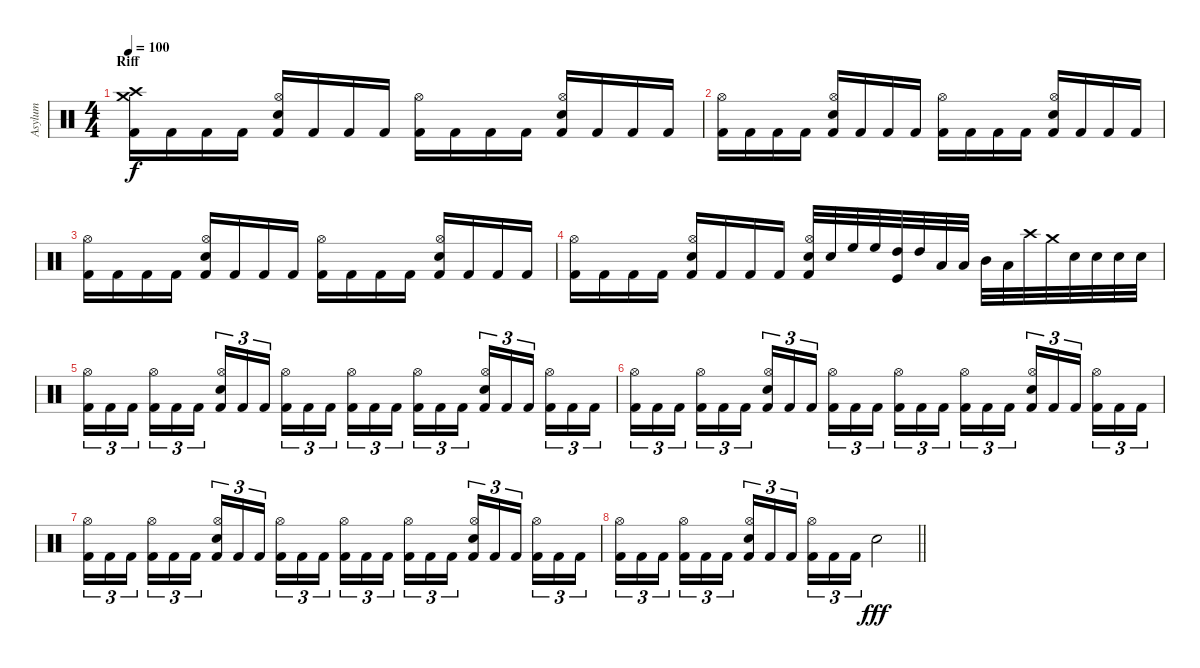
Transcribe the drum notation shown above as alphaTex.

\track ("Asylum" "Asylum") {instrument percussion}
\staff {score}
\articulation defaults
\ts (4 4)
\section ("" "Riff")
\tempo 100
\clef neutral
\ks c
("Crash high (hit)" "Crash medium (hit)" "Kick (hit) 2").16{dy f} "Kick (hit) 2".16 "Kick (hit) 2".16 "Kick (hit) 2".16 ("Hi-Hat (open)" "Electric Snare (hit)" "Kick (hit) 2").16 "Kick (hit) 2".16 "Kick (hit) 2".16 "Kick (hit) 2".16 ("Hi-Hat (open)" "Kick (hit) 2").16 "Kick (hit) 2".16 "Kick (hit) 2".16 "Kick (hit) 2".16 ("Hi-Hat (open)" "Electric Snare (hit)" "Kick (hit) 2").16 "Kick (hit) 2".16 "Kick (hit) 2".16 "Kick (hit) 2".16 |
("Hi-Hat (open)" "Kick (hit) 2").16 "Kick (hit) 2".16 "Kick (hit) 2".16 "Kick (hit) 2".16 ("Hi-Hat (open)" "Electric Snare (hit)" "Kick (hit) 2").16 "Kick (hit) 2".16 "Kick (hit) 2".16 "Kick (hit) 2".16 ("Hi-Hat (open)" "Kick (hit) 2").16 "Kick (hit) 2".16 "Kick (hit) 2".16 "Kick (hit) 2".16 ("Hi-Hat (open)" "Electric Snare (hit)" "Kick (hit) 2").16 "Kick (hit) 2".16 "Kick (hit) 2".16 "Kick (hit) 2".16 |
("Hi-Hat (open)" "Kick (hit) 2").16 "Kick (hit) 2".16 "Kick (hit) 2".16 "Kick (hit) 2".16 ("Hi-Hat (open)" "Electric Snare (hit)" "Kick (hit) 2").16 "Kick (hit) 2".16 "Kick (hit) 2".16 "Kick (hit) 2".16 ("Hi-Hat (open)" "Kick (hit) 2").16 "Kick (hit) 2".16 "Kick (hit) 2".16 "Kick (hit) 2".16 ("Hi-Hat (open)" "Electric Snare (hit)" "Kick (hit) 2").16 "Kick (hit) 2".16 "Kick (hit) 2".16 "Kick (hit) 2".16 |
("Hi-Hat (open)" "Kick (hit) 2").16 "Kick (hit) 2".16 "Kick (hit) 2".16 "Kick (hit) 2".16 ("Hi-Hat (open)" "Electric Snare (hit)" "Kick (hit) 2").16 "Kick (hit) 2".16 "Kick (hit) 2".16 "Kick (hit) 2".16 ("Hi-Hat (open)" "Electric Snare (hit)" "Kick (hit) 2").32 "Electric Snare (hit)".32 "High Floor Tom (hit)".32 "High Floor Tom (hit)".32 ("High Tom (hit)" "Kick (hit)").32 "High Tom (hit)".32 "Low Tom (hit)".32 "Low Tom (hit)".32 "Mid Tom (hit)".32 "Low Tom (hit)".32 "Crash high (hit)".32 "Crash medium (hit)".32 "Electric Snare (hit)".32 "Electric Snare (hit)".32 "Electric Snare (hit)".32 "Electric Snare (hit)".32 |
("Hi-Hat (open)" "Kick (hit) 2").16{tu (3 2)} "Kick (hit) 2".16{tu (3 2)} "Kick (hit) 2".16{tu (3 2)} ("Hi-Hat (open)" "Kick (hit) 2").16{tu (3 2)} "Kick (hit) 2".16{tu (3 2)} "Kick (hit) 2".16{tu (3 2)} ("Hi-Hat (open)" "Electric Snare (hit)" "Kick (hit) 2").16{tu (3 2)} "Kick (hit) 2".16{tu (3 2)} "Kick (hit) 2".16{tu (3 2)} ("Hi-Hat (open)" "Kick (hit) 2").16{tu (3 2)} "Kick (hit) 2".16{tu (3 2)} "Kick (hit) 2".16{tu (3 2)} ("Hi-Hat (open)" "Kick (hit) 2").16{tu (3 2)} "Kick (hit) 2".16{tu (3 2)} "Kick (hit) 2".16{tu (3 2)} ("Hi-Hat (open)" "Kick (hit) 2").16{tu (3 2)} "Kick (hit) 2".16{tu (3 2)} "Kick (hit) 2".16{tu (3 2)} ("Hi-Hat (open)" "Electric Snare (hit)" "Kick (hit) 2").16{tu (3 2)} "Kick (hit) 2".16{tu (3 2)} "Kick (hit) 2".16{tu (3 2)} ("Hi-Hat (open)" "Kick (hit) 2").16{tu (3 2)} "Kick (hit) 2".16{tu (3 2)} "Kick (hit) 2".16{tu (3 2)} |
("Hi-Hat (open)" "Kick (hit) 2").16{tu (3 2)} "Kick (hit) 2".16{tu (3 2)} "Kick (hit) 2".16{tu (3 2)} ("Hi-Hat (open)" "Kick (hit) 2").16{tu (3 2)} "Kick (hit) 2".16{tu (3 2)} "Kick (hit) 2".16{tu (3 2)} ("Hi-Hat (open)" "Electric Snare (hit)" "Kick (hit) 2").16{tu (3 2)} "Kick (hit) 2".16{tu (3 2)} "Kick (hit) 2".16{tu (3 2)} ("Hi-Hat (open)" "Kick (hit) 2").16{tu (3 2)} "Kick (hit) 2".16{tu (3 2)} "Kick (hit) 2".16{tu (3 2)} ("Hi-Hat (open)" "Kick (hit) 2").16{tu (3 2)} "Kick (hit) 2".16{tu (3 2)} "Kick (hit) 2".16{tu (3 2)} ("Hi-Hat (open)" "Kick (hit) 2").16{tu (3 2)} "Kick (hit) 2".16{tu (3 2)} "Kick (hit) 2".16{tu (3 2)} ("Hi-Hat (open)" "Electric Snare (hit)" "Kick (hit) 2").16{tu (3 2)} "Kick (hit) 2".16{tu (3 2)} "Kick (hit) 2".16{tu (3 2)} ("Hi-Hat (open)" "Kick (hit) 2").16{tu (3 2)} "Kick (hit) 2".16{tu (3 2)} "Kick (hit) 2".16{tu (3 2)} |
("Hi-Hat (open)" "Kick (hit) 2").16{tu (3 2)} "Kick (hit) 2".16{tu (3 2)} "Kick (hit) 2".16{tu (3 2)} ("Hi-Hat (open)" "Kick (hit) 2").16{tu (3 2)} "Kick (hit) 2".16{tu (3 2)} "Kick (hit) 2".16{tu (3 2)} ("Hi-Hat (open)" "Electric Snare (hit)" "Kick (hit) 2").16{tu (3 2)} "Kick (hit) 2".16{tu (3 2)} "Kick (hit) 2".16{tu (3 2)} ("Hi-Hat (open)" "Kick (hit) 2").16{tu (3 2)} "Kick (hit) 2".16{tu (3 2)} "Kick (hit) 2".16{tu (3 2)} ("Hi-Hat (open)" "Kick (hit) 2").16{tu (3 2)} "Kick (hit) 2".16{tu (3 2)} "Kick (hit) 2".16{tu (3 2)} ("Hi-Hat (open)" "Kick (hit) 2").16{tu (3 2)} "Kick (hit) 2".16{tu (3 2)} "Kick (hit) 2".16{tu (3 2)} ("Hi-Hat (open)" "Electric Snare (hit)" "Kick (hit) 2").16{tu (3 2)} "Kick (hit) 2".16{tu (3 2)} "Kick (hit) 2".16{tu (3 2)} ("Hi-Hat (open)" "Kick (hit) 2").16{tu (3 2)} "Kick (hit) 2".16{tu (3 2)} "Kick (hit) 2".16{tu (3 2)} |
\barLineRight lightlight
("Hi-Hat (open)" "Kick (hit) 2").16{tu (3 2)} "Kick (hit) 2".16{tu (3 2)} "Kick (hit) 2".16{tu (3 2)} ("Hi-Hat (open)" "Kick (hit) 2").16{tu (3 2)} "Kick (hit) 2".16{tu (3 2)} "Kick (hit) 2".16{tu (3 2)} ("Hi-Hat (open)" "Electric Snare (hit)" "Kick (hit) 2").16{tu (3 2)} "Kick (hit) 2".16{tu (3 2)} "Kick (hit) 2".16{tu (3 2)} ("Hi-Hat (open)" "Kick (hit) 2").16{tu (3 2)} "Kick (hit) 2".16{tu (3 2)} "Kick (hit) 2".16{tu (3 2)} "Electric Snare (hit)".2{dy fff}
